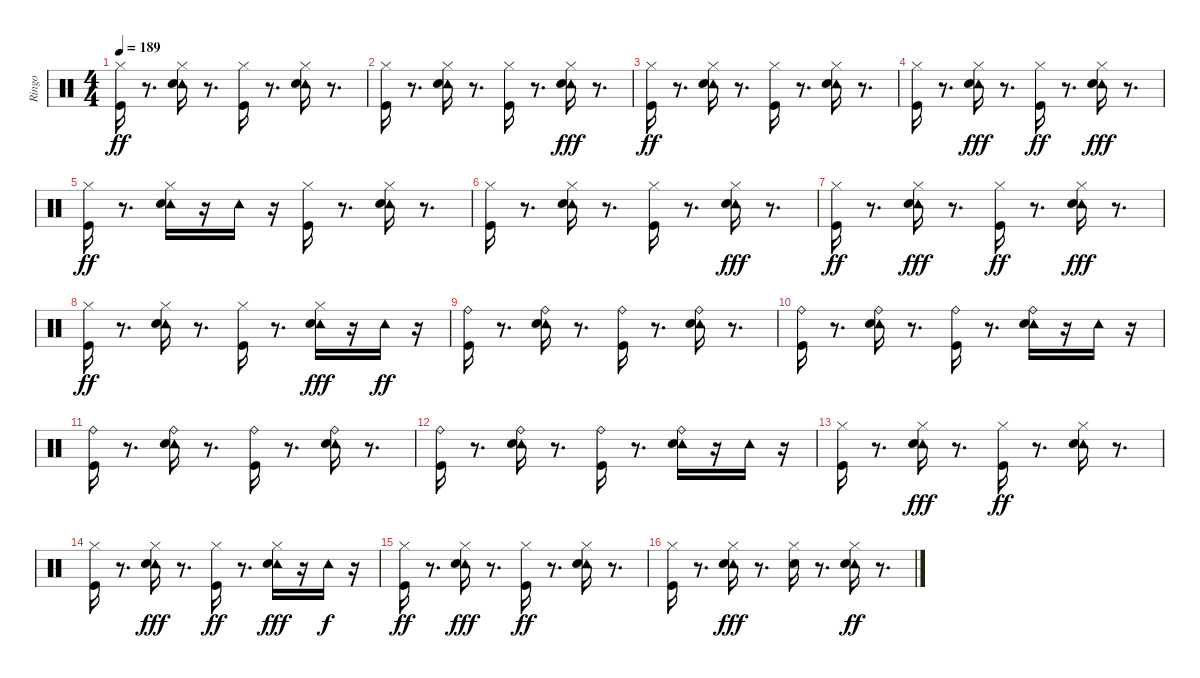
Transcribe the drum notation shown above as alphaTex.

\track ("Ringo" "Ringo") {instrument percussion}
\staff {score}
\articulation defaults
\ts (4 4)
\tempo 189
\clef neutral
\ks c
("Hi-Hat (closed)" "Kick (hit)").16{dy ff} r.8{d} ("Hi-Hat (closed)" "Tambourine (hit)" "Snare (hit) 2").16 r.8{d} ("Hi-Hat (closed)" "Kick (hit)").16 r.8{d} ("Hi-Hat (closed)" "Tambourine (hit)" "Snare (hit) 2").16 r.8{d} |
("Hi-Hat (closed)" "Kick (hit)").16 r.8{d} ("Hi-Hat (closed)" "Tambourine (hit)" "Snare (hit) 2").16 r.8{d} ("Hi-Hat (closed)" "Kick (hit)").16 r.8{d} ("Tambourine (hit)" "Hi-Hat (closed)" "Snare (hit) 2").16{dy fff} r.8{d} |
("Hi-Hat (closed)" "Kick (hit)").16{dy ff} r.8{d} ("Hi-Hat (closed)" "Tambourine (hit)" "Snare (hit) 2").16 r.8{d} ("Hi-Hat (closed)" "Kick (hit)").16 r.8{d} ("Hi-Hat (closed)" "Tambourine (hit)" "Snare (hit) 2").16 r.8{d} |
("Hi-Hat (closed)" "Kick (hit)").16 r.8{d} ("Tambourine (hit)" "Hi-Hat (closed)" "Snare (hit) 2").16{dy fff} r.8{d} ("Hi-Hat (closed)" "Kick (hit)").16{dy ff} r.8{d} ("Tambourine (hit)" "Hi-Hat (closed)" "Snare (hit) 2").16{dy fff} r.8{d} |
("Hi-Hat (closed)" "Kick (hit)").16{dy ff} r.8{d} ("Hi-Hat (closed)" "Tambourine (hit)" "Snare (hit) 2").16 r.16 "Tambourine (hit)".16 r.16 ("Hi-Hat (closed)" "Kick (hit)").16 r.8{d} ("Hi-Hat (closed)" "Tambourine (hit)" "Snare (hit) 2").16 r.8{d} |
("Hi-Hat (closed)" "Kick (hit)").16 r.8{d} ("Hi-Hat (closed)" "Tambourine (hit)" "Snare (hit) 2").16 r.8{d} ("Hi-Hat (closed)" "Kick (hit)").16 r.8{d} ("Tambourine (hit)" "Hi-Hat (closed)" "Snare (hit) 2").16{dy fff} r.8{d} |
("Hi-Hat (closed)" "Kick (hit)").16{dy ff} r.8{d} ("Tambourine (hit)" "Hi-Hat (closed)" "Snare (hit) 2").16{dy fff} r.8{d} ("Hi-Hat (closed)" "Kick (hit)").16{dy ff} r.8{d} ("Tambourine (hit)" "Hi-Hat (closed)" "Snare (hit) 2").16{dy fff} r.8{d} |
("Hi-Hat (closed)" "Kick (hit)").16{dy ff} r.8{d} ("Hi-Hat (closed)" "Tambourine (hit)" "Snare (hit) 2").16 r.8{d} ("Hi-Hat (closed)" "Kick (hit)").16 r.8{d} ("Tambourine (hit)" "Hi-Hat (closed)" "Snare (hit) 2").16{dy fff} r.16 "Tambourine (hit)".16{dy ff} r.16 |
("Ride (bell)" "Kick (hit)").16 r.8{d} ("Ride (bell)" "Tambourine (hit)" "Snare (hit) 2").16 r.8{d} ("Ride (bell)" "Kick (hit)").16 r.8{d} ("Ride (bell)" "Tambourine (hit)" "Snare (hit) 2").16 r.8{d} |
("Ride (bell)" "Kick (hit)").16 r.8{d} ("Tambourine (hit)" "Ride (bell)" "Snare (hit) 2").16 r.8{d} ("Ride (bell)" "Kick (hit)").16 r.8{d} ("Ride (bell)" "Tambourine (hit)" "Snare (hit) 2").16 r.16 "Tambourine (hit)".16 r.16 |
("Ride (bell)" "Kick (hit)").16 r.8{d} ("Tambourine (hit)" "Ride (bell)" "Snare (hit) 2").16 r.8{d} ("Ride (bell)" "Kick (hit)").16 r.8{d} ("Ride (bell)" "Tambourine (hit)" "Snare (hit) 2").16 r.8{d} |
("Ride (bell)" "Kick (hit)").16 r.8{d} ("Ride (bell)" "Tambourine (hit)" "Snare (hit) 2").16 r.8{d} ("Ride (bell)" "Kick (hit)").16 r.8{d} ("Ride (bell)" "Tambourine (hit)" "Snare (hit) 2").16 r.16 "Tambourine (hit)".16 r.16 |
("Hi-Hat (closed)" "Kick (hit)").16 r.8{d} ("Tambourine (hit)" "Hi-Hat (closed)" "Snare (hit) 2").16{dy fff} r.8{d} ("Hi-Hat (closed)" "Kick (hit)").16{dy ff} r.8{d} ("Hi-Hat (closed)" "Tambourine (hit)" "Snare (hit) 2").16 r.8{d} |
("Hi-Hat (closed)" "Kick (hit)").16 r.8{d} ("Tambourine (hit)" "Hi-Hat (closed)" "Snare (hit) 2").16{dy fff} r.8{d} ("Hi-Hat (closed)" "Kick (hit)").16{dy ff} r.8{d} ("Tambourine (hit)" "Hi-Hat (closed)" "Snare (hit) 2").16{dy fff} r.16 "Tambourine (hit)".16{dy f} r.16 |
("Hi-Hat (closed)" "Kick (hit)").16{dy ff} r.8{d} ("Tambourine (hit)" "Hi-Hat (closed)" "Snare (hit) 2").16{dy fff} r.8{d} ("Hi-Hat (closed)" "Kick (hit)").16{dy ff} r.8{d} ("Hi-Hat (closed)" "Tambourine (hit)" "Snare (hit) 2").16 r.8{d} |
("Hi-Hat (closed)" "Kick (hit)").16 r.8{d} ("Tambourine (hit)" "Hi-Hat (closed)" "Snare (hit) 2").16{dy fff} r.8{d} ("Hi-Hat (closed)" "Snare (hit) 2").16 r.8{d} ("Hi-Hat (closed)" "Tambourine (hit)" "Snare (hit) 2").16{dy ff} r.8{d}
